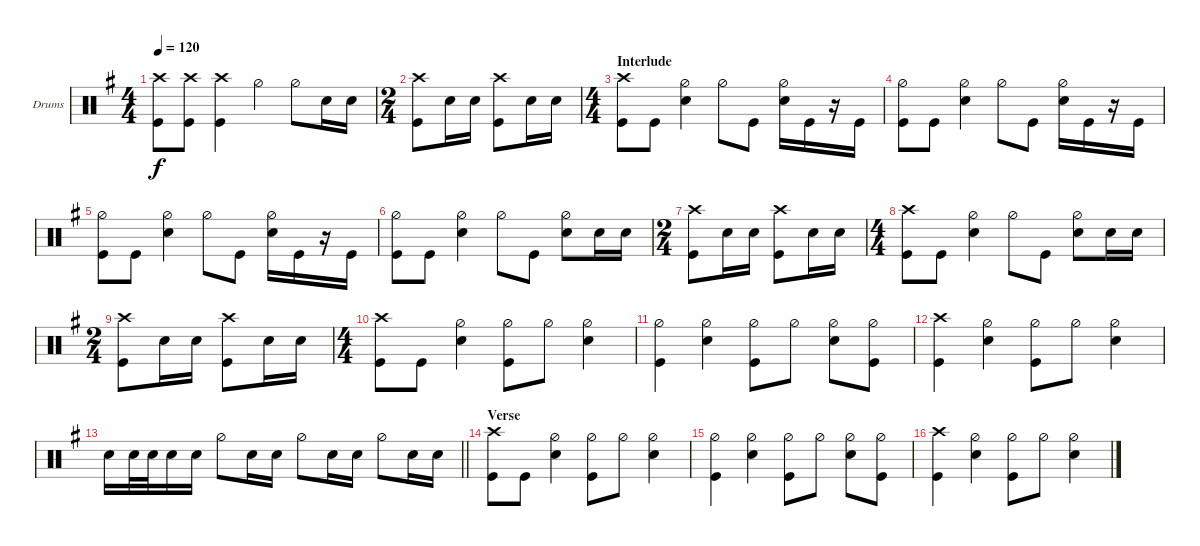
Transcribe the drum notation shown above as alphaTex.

\defaultSystemsLayout 4
\bracketExtendMode groupsimilarinstruments
\firstSystemTrackNameOrientation horizontal
\otherSystemsTrackNameOrientation horizontal
\track ("Drums" "Drums") {instrument percussion}
\staff {score}
\articulation defaults
\ts (4 4)
\tempo 120
\clef neutral
\ks g
("Kick (hit)" "Crash high (hit)").8{dy f} ("Kick (hit)" "Crash high (hit)").8 ("Kick (hit)" "Crash high (hit)").4 "Hi-Hat (half)".4 "Hi-Hat (half)".8 "Snare (hit) 2".16 "Snare (hit) 2".16 |
\ts (2 4)
("Kick (hit)" "Crash high (hit)").8 "Snare (hit) 2".16 "Snare (hit) 2".16 ("Kick (hit)" "Crash high (hit)").8 "Snare (hit) 2".16 "Snare (hit) 2".16 |
\ts (4 4)
\section ("" "Interlude")
("Kick (hit)" "Crash high (hit)").8 "Kick (hit)".8 ("Snare (hit) 2" "Hi-Hat (half)").4 "Hi-Hat (half)".8 "Kick (hit)".8 ("Snare (hit) 2" "Hi-Hat (half)").16 "Kick (hit)".16 r.16 "Kick (hit)".16 |
("Kick (hit)" "Hi-Hat (half)").8 "Kick (hit)".8 ("Snare (hit) 2" "Hi-Hat (half)").4 "Hi-Hat (half)".8 "Kick (hit)".8 ("Snare (hit) 2" "Hi-Hat (half)").16 "Kick (hit)".16 r.16 "Kick (hit)".16 |
("Kick (hit)" "Hi-Hat (half)").8 "Kick (hit)".8 ("Snare (hit) 2" "Hi-Hat (half)").4 "Hi-Hat (half)".8 "Kick (hit)".8 ("Snare (hit) 2" "Hi-Hat (half)").16 "Kick (hit)".16 r.16 "Kick (hit)".16 |
("Kick (hit)" "Hi-Hat (half)").8 "Kick (hit)".8 ("Snare (hit) 2" "Hi-Hat (half)").4 "Hi-Hat (half)".8 "Kick (hit)".8 ("Snare (hit) 2" "Hi-Hat (half)").8 "Snare (hit) 2".16 "Snare (hit) 2".16 |
\ts (2 4)
("Kick (hit)" "Crash high (hit)").8 "Snare (hit) 2".16 "Snare (hit) 2".16 ("Kick (hit)" "Crash high (hit)").8 "Snare (hit) 2".16 "Snare (hit) 2".16 |
\ts (4 4)
("Kick (hit)" "Crash high (hit)").8 "Kick (hit)".8 ("Snare (hit) 2" "Hi-Hat (half)").4 "Hi-Hat (half)".8 "Kick (hit)".8 ("Snare (hit) 2" "Hi-Hat (half)").8 "Snare (hit) 2".16 "Snare (hit) 2".16 |
\ts (2 4)
("Kick (hit)" "Crash high (hit)").8 "Snare (hit) 2".16 "Snare (hit) 2".16 ("Kick (hit)" "Crash high (hit)").8 "Snare (hit) 2".16 "Snare (hit) 2".16 |
\ts (4 4)
("Kick (hit)" "Crash high (hit)").8 "Kick (hit)".8 ("Snare (hit) 2" "Hi-Hat (half)").4 ("Kick (hit)" "Hi-Hat (half)").8 "Hi-Hat (half)".8 ("Snare (hit) 2" "Hi-Hat (half)").4 |
("Kick (hit)" "Hi-Hat (half)").4 ("Snare (hit) 2" "Hi-Hat (half)").4 ("Kick (hit)" "Hi-Hat (half)").8 "Hi-Hat (half)".8 ("Snare (hit) 2" "Hi-Hat (half)").8 ("Kick (hit)" "Hi-Hat (half)").8 |
("Kick (hit)" "Crash high (hit)").4 ("Snare (hit) 2" "Hi-Hat (half)").4 ("Kick (hit)" "Hi-Hat (half)").8 "Hi-Hat (half)".8 ("Snare (hit) 2" "Hi-Hat (half)").4 |
\barLineRight lightlight "Snare (hit) 2".16 "Snare (hit) 2".32 "Snare (hit) 2".32 "Snare (hit) 2".16 "Snare (hit) 2".16 "Hi-Hat (half)".8 "Snare (hit) 2".16 "Snare (hit) 2".16 "Hi-Hat (half)".8 "Snare (hit) 2".16 "Snare (hit) 2".16 "Hi-Hat (half)".8 "Snare (hit) 2".16 "Snare (hit) 2".16
|
\section ("" "Verse")
("Kick (hit)" "Crash high (hit)").8 "Kick (hit)".8 ("Snare (hit) 2" "Hi-Hat (half)").4 ("Kick (hit)" "Hi-Hat (half)").8 "Hi-Hat (half)".8 ("Snare (hit) 2" "Hi-Hat (half)").4 |
("Kick (hit)" "Hi-Hat (half)").4 ("Snare (hit) 2" "Hi-Hat (half)").4 ("Kick (hit)" "Hi-Hat (half)").8 "Hi-Hat (half)".8 ("Snare (hit) 2" "Hi-Hat (half)").8 ("Kick (hit)" "Hi-Hat (half)").8 |
("Kick (hit)" "Crash high (hit)").4 ("Snare (hit) 2" "Hi-Hat (half)").4 ("Kick (hit)" "Hi-Hat (half)").8 "Hi-Hat (half)".8 ("Snare (hit) 2" "Hi-Hat (half)").4
